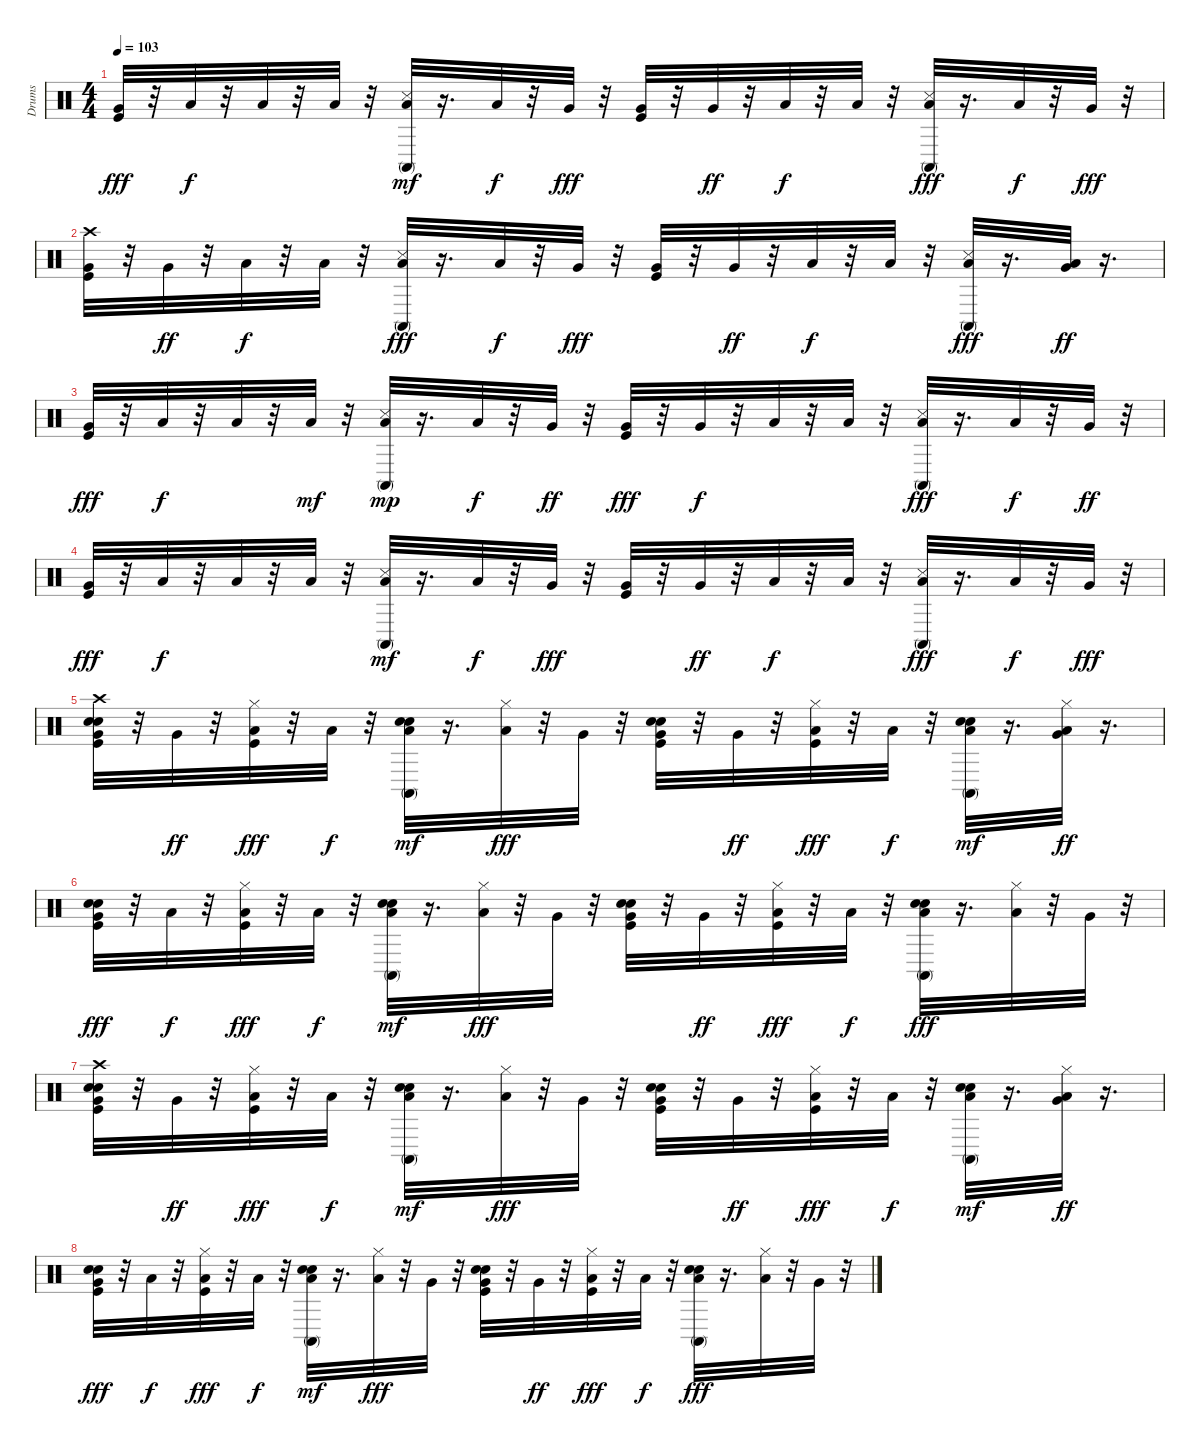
\track ("Drums" "Drums") {instrument percussion}
\staff {score}
\articulation defaults
\ts (4 4)
\tempo 103
\clef neutral
\ks c
("Very Low Tom (hit)" "Kick (hit)").32{dy fff} r.32 "Low Floor Tom (hit)".32{dy f} r.32 "Low Floor Tom (hit)".32 r.32 "Low Floor Tom (hit)".32 r.32 ("Conga high (mute)" "Snare (side stick) 3" "Low Floor Tom (hit)").32{dy mf} r.16{d} "Low Floor Tom (hit)".32{dy f} r.32 "Very Low Tom (hit)".32{dy fff} r.32 ("Very Low Tom (hit)" "Kick (hit)").32 r.32 "Very Low Tom (hit)".32{dy ff} r.32 "Low Floor Tom (hit)".32{dy f} r.32 "Low Floor Tom (hit)".32 r.32 ("Conga high (mute)" "Low Floor Tom (hit)" "Snare (side stick) 3").32{dy fff} r.16{d} "Low Floor Tom (hit)".32{dy f} r.32 "Very Low Tom (hit)".32{dy fff} r.32 |
("Crash high (hit)" "Very Low Tom (hit)" "Kick (hit)").32 r.32 "Very Low Tom (hit)".32{dy ff} r.32 "Low Floor Tom (hit)".32{dy f} r.32 "Low Floor Tom (hit)".32 r.32 ("Conga high (mute)" "Low Floor Tom (hit)" "Snare (side stick) 3").32{dy fff} r.16{d} "Low Floor Tom (hit)".32{dy f} r.32 "Very Low Tom (hit)".32{dy fff} r.32 ("Very Low Tom (hit)" "Kick (hit)").32 r.32 "Very Low Tom (hit)".32{dy ff} r.32 "Low Floor Tom (hit)".32{dy f} r.32 "Low Floor Tom (hit)".32 r.32 ("Conga high (mute)" "Low Floor Tom (hit)" "Snare (side stick) 3").32{dy fff} r.16{d} ("Low Floor Tom (hit)" "Very Low Tom (hit)").32{dy ff} r.16{d} |
("Very Low Tom (hit)" "Kick (hit)").32{dy fff} r.32 "Low Floor Tom (hit)".32{dy f} r.32 "Low Floor Tom (hit)".32 r.32 "Low Floor Tom (hit)".32{dy mf} r.32 ("Conga high (mute)" "Snare (side stick) 3" "Low Floor Tom (hit)").32{dy mp} r.16{d} "Low Floor Tom (hit)".32{dy f} r.32 "Very Low Tom (hit)".32{dy ff} r.32 ("Very Low Tom (hit)" "Kick (hit)").32{dy fff} r.32 "Very Low Tom (hit)".32{dy f} r.32 "Low Floor Tom (hit)".32 r.32 "Low Floor Tom (hit)".32 r.32 ("Conga high (mute)" "Low Floor Tom (hit)" "Snare (side stick) 3").32{dy fff} r.16{d} "Low Floor Tom (hit)".32{dy f} r.32 "Very Low Tom (hit)".32{dy ff} r.32 |
("Very Low Tom (hit)" "Kick (hit)").32{dy fff} r.32 "Low Floor Tom (hit)".32{dy f} r.32 "Low Floor Tom (hit)".32 r.32 "Low Floor Tom (hit)".32 r.32 ("Snare (side stick) 3" "Conga high (mute)" "Low Floor Tom (hit)").32{dy mf} r.16{d} "Low Floor Tom (hit)".32{dy f} r.32 "Very Low Tom (hit)".32{dy fff} r.32 ("Very Low Tom (hit)" "Kick (hit)").32 r.32 "Very Low Tom (hit)".32{dy ff} r.32 "Low Floor Tom (hit)".32{dy f} r.32 "Low Floor Tom (hit)".32 r.32 ("Snare (side stick) 3" "Conga high (mute)" "Low Floor Tom (hit)").32{dy fff} r.16{d} "Low Floor Tom (hit)".32{dy f} r.32 "Very Low Tom (hit)".32{dy fff} r.32 |
("Crash high (hit)" "Electric Snare (hit)" "Snare (hit) 2" "Very Low Tom (hit)" "Kick (hit)").32 r.32 "Very Low Tom (hit)".32{dy ff} r.32 ("Hi-Hat (closed)" "Kick (hit)" "Low Floor Tom (hit)").32{dy fff} r.32 "Low Floor Tom (hit)".32{dy f} r.32 ("Electric Snare (hit)" "Snare (hit) 2" "Conga high (mute)" "Low Floor Tom (hit)").32{dy mf} r.16{d} ("Hi-Hat (closed)" "Low Floor Tom (hit)").32{dy fff} r.32 "Very Low Tom (hit)".32 r.32 ("Electric Snare (hit)" "Snare (hit) 2" "Very Low Tom (hit)" "Kick (hit)").32 r.32 "Very Low Tom (hit)".32{dy ff} r.32 ("Hi-Hat (closed)" "Kick (hit)" "Low Floor Tom (hit)").32{dy fff} r.32 "Low Floor Tom (hit)".32{dy f} r.32 ("Electric Snare (hit)" "Snare (hit) 2" "Conga high (mute)" "Low Floor Tom (hit)").32{dy mf} r.16{d} ("Hi-Hat (closed)" "Low Floor Tom (hit)" "Very Low Tom (hit)").32{dy ff} r.16{d} |
("Electric Snare (hit)" "Snare (hit) 2" "Very Low Tom (hit)" "Kick (hit)").32{dy fff} r.32 "Low Floor Tom (hit)".32{dy f} r.32 ("Hi-Hat (closed)" "Kick (hit)" "Low Floor Tom (hit)").32{dy fff} r.32 "Low Floor Tom (hit)".32{dy f} r.32 ("Electric Snare (hit)" "Snare (hit) 2" "Conga high (mute)" "Low Floor Tom (hit)").32{dy mf} r.16{d} ("Hi-Hat (closed)" "Low Floor Tom (hit)").32{dy fff} r.32 "Very Low Tom (hit)".32 r.32 ("Electric Snare (hit)" "Snare (hit) 2" "Very Low Tom (hit)" "Kick (hit)").32 r.32 "Very Low Tom (hit)".32{dy ff} r.32 ("Hi-Hat (closed)" "Kick (hit)" "Low Floor Tom (hit)").32{dy fff} r.32 "Low Floor Tom (hit)".32{dy f} r.32 ("Electric Snare (hit)" "Snare (hit) 2" "Conga high (mute)" "Low Floor Tom (hit)").32{dy fff} r.16{d} ("Hi-Hat (closed)" "Low Floor Tom (hit)").32 r.32 "Very Low Tom (hit)".32 r.32 |
("Crash high (hit)" "Electric Snare (hit)" "Snare (hit) 2" "Very Low Tom (hit)" "Kick (hit)").32 r.32 "Very Low Tom (hit)".32{dy ff} r.32 ("Hi-Hat (closed)" "Kick (hit)" "Low Floor Tom (hit)").32{dy fff} r.32 "Low Floor Tom (hit)".32{dy f} r.32 ("Electric Snare (hit)" "Snare (hit) 2" "Conga high (mute)" "Low Floor Tom (hit)").32{dy mf} r.16{d} ("Hi-Hat (closed)" "Low Floor Tom (hit)").32{dy fff} r.32 "Very Low Tom (hit)".32 r.32 ("Electric Snare (hit)" "Snare (hit) 2" "Very Low Tom (hit)" "Kick (hit)").32 r.32 "Very Low Tom (hit)".32{dy ff} r.32 ("Hi-Hat (closed)" "Kick (hit)" "Low Floor Tom (hit)").32{dy fff} r.32 "Low Floor Tom (hit)".32{dy f} r.32 ("Electric Snare (hit)" "Snare (hit) 2" "Conga high (mute)" "Low Floor Tom (hit)").32{dy mf} r.16{d} ("Hi-Hat (closed)" "Low Floor Tom (hit)" "Very Low Tom (hit)").32{dy ff} r.16{d} |
("Electric Snare (hit)" "Snare (hit) 2" "Very Low Tom (hit)" "Kick (hit)").32{dy fff} r.32 "Low Floor Tom (hit)".32{dy f} r.32 ("Hi-Hat (closed)" "Kick (hit)" "Low Floor Tom (hit)").32{dy fff} r.32 "Low Floor Tom (hit)".32{dy f} r.32 ("Electric Snare (hit)" "Snare (hit) 2" "Conga high (mute)" "Low Floor Tom (hit)").32{dy mf} r.16{d} ("Hi-Hat (closed)" "Low Floor Tom (hit)").32{dy fff} r.32 "Very Low Tom (hit)".32 r.32 ("Electric Snare (hit)" "Snare (hit) 2" "Very Low Tom (hit)" "Kick (hit)").32 r.32 "Very Low Tom (hit)".32{dy ff} r.32 ("Hi-Hat (closed)" "Kick (hit)" "Low Floor Tom (hit)").32{dy fff} r.32 "Low Floor Tom (hit)".32{dy f} r.32 ("Electric Snare (hit)" "Snare (hit) 2" "Conga high (mute)" "Low Floor Tom (hit)").32{dy fff} r.16{d} ("Hi-Hat (closed)" "Low Floor Tom (hit)").32 r.32 "Very Low Tom (hit)".32 r.32
